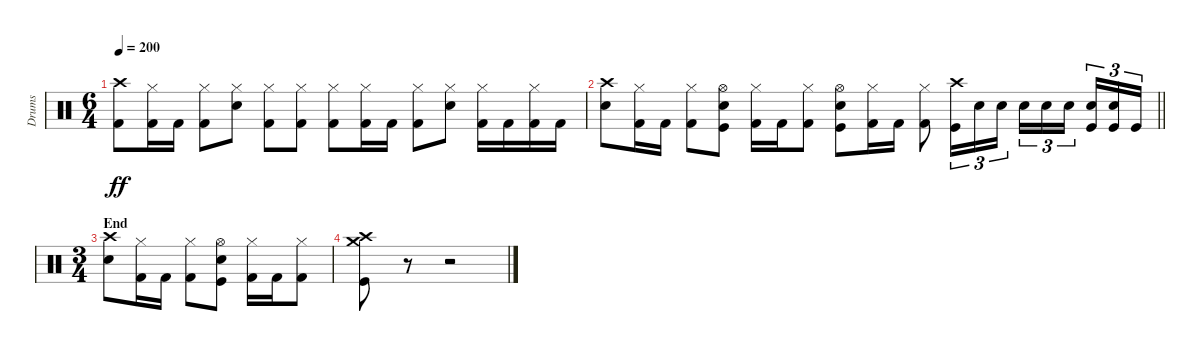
\track ("Drums" "Drums") {instrument percussion}
\staff {score}
\articulation defaults
\ts (6 4)
\tempo 200
\clef neutral
\ks c
("Crash high (hit)" "Kick (hit) 2").8{dy ff} ("Hi-Hat (closed)" "Kick (hit) 2").16 "Kick (hit) 2".16 ("Hi-Hat (closed)" "Kick (hit) 2").8 ("Hi-Hat (closed)" "Electric Snare (hit)").8 ("Hi-Hat (closed)" "Kick (hit) 2").8 ("Hi-Hat (closed)" "Kick (hit) 2").8 ("Hi-Hat (closed)" "Kick (hit) 2").8 ("Hi-Hat (closed)" "Kick (hit) 2").16 "Kick (hit) 2".16 ("Hi-Hat (closed)" "Kick (hit) 2").8 ("Hi-Hat (closed)" "Electric Snare (hit)").8 ("Hi-Hat (closed)" "Kick (hit) 2").16 "Kick (hit) 2".16 ("Hi-Hat (closed)" "Kick (hit) 2").16 "Kick (hit) 2".16 |
\barLineRight lightlight
("Crash high (hit)" "Electric Snare (hit)").8 ("Hi-Hat (closed)" "Kick (hit) 2").16 "Kick (hit) 2".16 ("Hi-Hat (closed)" "Kick (hit) 2").8 ("Hi-Hat (open)" "Electric Snare (hit)" "Kick (hit)").8 ("Hi-Hat (closed)" "Kick (hit) 2").16 "Kick (hit) 2".16 ("Hi-Hat (closed)" "Kick (hit) 2").8 ("Hi-Hat (open)" "Electric Snare (hit)" "Kick (hit)").8 ("Hi-Hat (closed)" "Kick (hit) 2").16 "Kick (hit) 2".16 ("Hi-Hat (closed)" "Kick (hit) 2").8 ("Crash high (hit)" "Kick (hit)").16{tu (3 2)} "Electric Snare (hit)".16{tu (3 2)} "Electric Snare (hit)".16{tu (3 2) beam splitsecondary} "Electric Snare (hit)".16{tu (3 2)} "Electric Snare (hit)".16{tu (3 2)} "Electric Snare (hit)".16{tu (3 2) beam splitsecondary} ("Electric Snare (hit)" "Kick (hit)").16{tu (3 2)} ("Electric Snare (hit)" "Kick (hit)").16{tu (3 2)} "Kick (hit)".16{tu (3 2)} |
\ts (3 4)
\section ("" "End")
("Crash high (hit)" "Electric Snare (hit)").8 ("Hi-Hat (closed)" "Kick (hit) 2").16 "Kick (hit) 2".16 ("Hi-Hat (closed)" "Kick (hit) 2").8 ("Hi-Hat (open)" "Electric Snare (hit)" "Kick (hit)").8 ("Hi-Hat (closed)" "Kick (hit) 2").16 "Kick (hit) 2".16 ("Hi-Hat (closed)" "Kick (hit) 2").8 |
("Crash high (hit)" "Crash medium (hit)" "Kick (hit)").8 r.8 r.2
